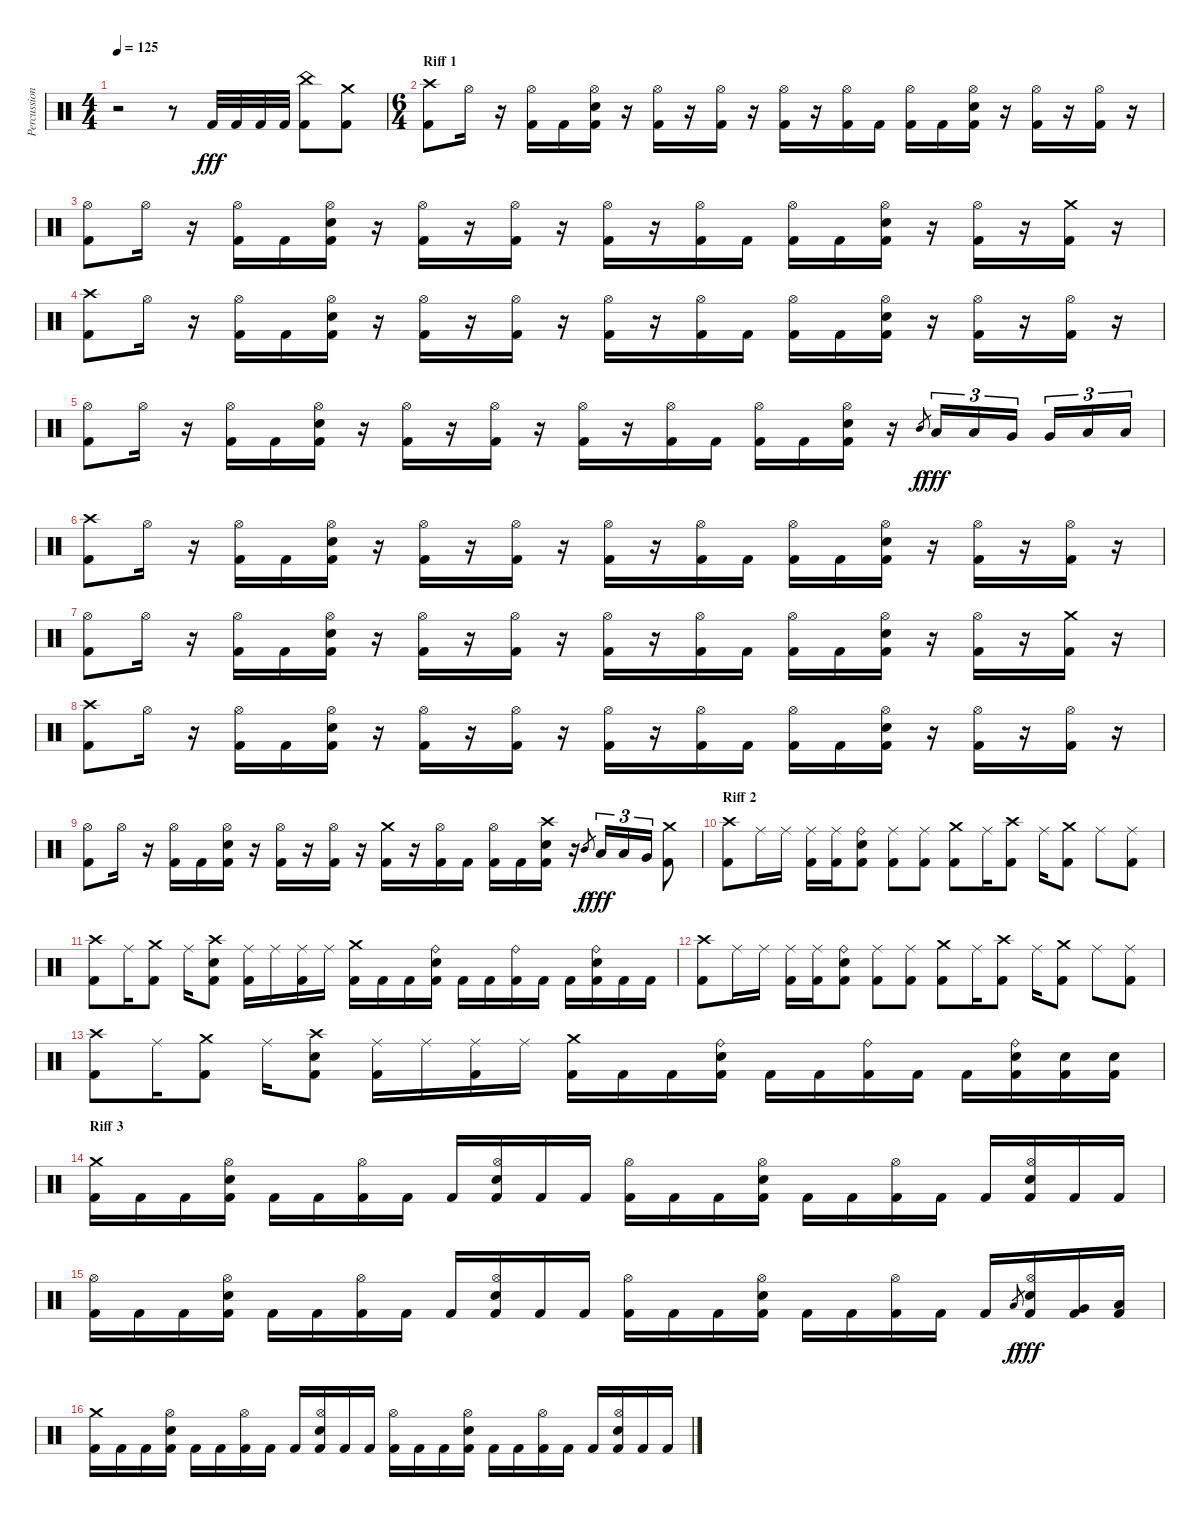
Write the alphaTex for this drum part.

\track ("Percussion" "Percussion") {instrument percussion}
\staff {score}
\articulation defaults
\ts (4 4)
\tempo 125
\clef neutral
\ks c
r.2{dy fff} r.8 "Kick (hit) 2".32 "Kick (hit) 2".32 "Kick (hit) 2".32 "Kick (hit) 2".32 ("China (hit)" "Kick (hit) 2").8 ("Crash medium (hit)" "Kick (hit) 2").8 |
\ts (6 4)
\section ("" "Riff 1")
("Crash high (hit)" "Kick (hit) 2").8 "Hi-Hat (open)".16 r.16 ("Hi-Hat (open)" "Kick (hit) 2").16 "Kick (hit) 2".16 ("Hi-Hat (open)" "Electric Snare (hit)" "Kick (hit) 2").16 r.16 ("Hi-Hat (open)" "Kick (hit) 2").16 r.16 ("Hi-Hat (open)" "Kick (hit) 2").16 r.16 ("Hi-Hat (open)" "Kick (hit) 2").16 r.16 ("Hi-Hat (open)" "Kick (hit) 2").16 "Kick (hit) 2".16 ("Hi-Hat (open)" "Kick (hit) 2").16 "Kick (hit) 2".16 ("Hi-Hat (open)" "Electric Snare (hit)" "Kick (hit) 2").16 r.16 ("Hi-Hat (open)" "Kick (hit) 2").16 r.16 ("Hi-Hat (open)" "Kick (hit) 2").16 r.16 |
("Hi-Hat (open)" "Kick (hit) 2").8 "Hi-Hat (open)".16 r.16 ("Hi-Hat (open)" "Kick (hit) 2").16 "Kick (hit) 2".16 ("Hi-Hat (open)" "Electric Snare (hit)" "Kick (hit) 2").16 r.16 ("Hi-Hat (open)" "Kick (hit) 2").16 r.16 ("Hi-Hat (open)" "Kick (hit) 2").16 r.16 ("Hi-Hat (open)" "Kick (hit) 2").16 r.16 ("Hi-Hat (open)" "Kick (hit) 2").16 "Kick (hit) 2".16 ("Hi-Hat (open)" "Kick (hit) 2").16 "Kick (hit) 2".16 ("Hi-Hat (open)" "Electric Snare (hit)" "Kick (hit) 2").16 r.16 ("Hi-Hat (open)" "Kick (hit) 2").16 r.16 ("Crash medium (hit)" "Kick (hit) 2").16 r.16 |
("Crash high (hit)" "Kick (hit) 2").8 "Hi-Hat (open)".16 r.16 ("Hi-Hat (open)" "Kick (hit) 2").16 "Kick (hit) 2".16 ("Hi-Hat (open)" "Electric Snare (hit)" "Kick (hit) 2").16 r.16 ("Hi-Hat (open)" "Kick (hit) 2").16 r.16 ("Hi-Hat (open)" "Kick (hit) 2").16 r.16 ("Hi-Hat (open)" "Kick (hit) 2").16 r.16 ("Hi-Hat (open)" "Kick (hit) 2").16 "Kick (hit) 2".16 ("Hi-Hat (open)" "Kick (hit) 2").16 "Kick (hit) 2".16 ("Hi-Hat (open)" "Electric Snare (hit)" "Kick (hit) 2").16 r.16 ("Hi-Hat (open)" "Kick (hit) 2").16 r.16 ("Hi-Hat (open)" "Kick (hit) 2").16 r.16 |
("Hi-Hat (open)" "Kick (hit) 2").8 "Hi-Hat (open)".16 r.16 ("Hi-Hat (open)" "Kick (hit) 2").16 "Kick (hit) 2".16 ("Hi-Hat (open)" "Electric Snare (hit)" "Kick (hit) 2").16 r.16 ("Hi-Hat (open)" "Kick (hit) 2").16 r.16 ("Hi-Hat (open)" "Kick (hit) 2").16 r.16 ("Hi-Hat (open)" "Kick (hit) 2").16 r.16 ("Hi-Hat (open)" "Kick (hit) 2").16 "Kick (hit) 2".16 ("Hi-Hat (open)" "Kick (hit) 2").16 "Kick (hit) 2".16 ("Hi-Hat (open)" "Electric Snare (hit)" "Kick (hit) 2").16 r.16 "Mid Tom (hit)".8{gr dy f} "Low Tom (hit)".16{tu (3 2) dy fff} "Low Tom (hit)".16{tu (3 2)} "Very Low Tom (hit)".16{tu (3 2)} "Very Low Tom (hit)".16{tu (3 2)} "Low Floor Tom (hit)".16{tu (3 2)} "Low Floor Tom (hit)".16{tu (3 2)} |
("Crash high (hit)" "Kick (hit) 2").8 "Hi-Hat (open)".16 r.16 ("Hi-Hat (open)" "Kick (hit) 2").16 "Kick (hit) 2".16 ("Hi-Hat (open)" "Electric Snare (hit)" "Kick (hit) 2").16 r.16 ("Hi-Hat (open)" "Kick (hit) 2").16 r.16 ("Hi-Hat (open)" "Kick (hit) 2").16 r.16 ("Hi-Hat (open)" "Kick (hit) 2").16 r.16 ("Hi-Hat (open)" "Kick (hit) 2").16 "Kick (hit) 2".16 ("Hi-Hat (open)" "Kick (hit) 2").16 "Kick (hit) 2".16 ("Hi-Hat (open)" "Electric Snare (hit)" "Kick (hit) 2").16 r.16 ("Hi-Hat (open)" "Kick (hit) 2").16 r.16 ("Hi-Hat (open)" "Kick (hit) 2").16 r.16 |
("Hi-Hat (open)" "Kick (hit) 2").8 "Hi-Hat (open)".16 r.16 ("Hi-Hat (open)" "Kick (hit) 2").16 "Kick (hit) 2".16 ("Hi-Hat (open)" "Electric Snare (hit)" "Kick (hit) 2").16 r.16 ("Hi-Hat (open)" "Kick (hit) 2").16 r.16 ("Hi-Hat (open)" "Kick (hit) 2").16 r.16 ("Hi-Hat (open)" "Kick (hit) 2").16 r.16 ("Hi-Hat (open)" "Kick (hit) 2").16 "Kick (hit) 2".16 ("Hi-Hat (open)" "Kick (hit) 2").16 "Kick (hit) 2".16 ("Hi-Hat (open)" "Electric Snare (hit)" "Kick (hit) 2").16 r.16 ("Hi-Hat (open)" "Kick (hit) 2").16 r.16 ("Crash medium (hit)" "Kick (hit) 2").16 r.16 |
("Crash high (hit)" "Kick (hit) 2").8 "Hi-Hat (open)".16 r.16 ("Hi-Hat (open)" "Kick (hit) 2").16 "Kick (hit) 2".16 ("Hi-Hat (open)" "Electric Snare (hit)" "Kick (hit) 2").16 r.16 ("Hi-Hat (open)" "Kick (hit) 2").16 r.16 ("Hi-Hat (open)" "Kick (hit) 2").16 r.16 ("Hi-Hat (open)" "Kick (hit) 2").16 r.16 ("Hi-Hat (open)" "Kick (hit) 2").16 "Kick (hit) 2".16 ("Hi-Hat (open)" "Kick (hit) 2").16 "Kick (hit) 2".16 ("Hi-Hat (open)" "Electric Snare (hit)" "Kick (hit) 2").16 r.16 ("Hi-Hat (open)" "Kick (hit) 2").16 r.16 ("Hi-Hat (open)" "Kick (hit) 2").16 r.16 |
("Hi-Hat (open)" "Kick (hit) 2").8 "Hi-Hat (open)".16 r.16 ("Hi-Hat (open)" "Kick (hit) 2").16 "Kick (hit) 2".16 ("Hi-Hat (open)" "Electric Snare (hit)" "Kick (hit) 2").16 r.16 ("Hi-Hat (open)" "Kick (hit) 2").16 r.16 ("Hi-Hat (open)" "Kick (hit) 2").16 r.16 ("Crash medium (hit)" "Kick (hit) 2").16 r.16 ("Hi-Hat (open)" "Kick (hit) 2").16 "Kick (hit) 2".16 ("Hi-Hat (open)" "Kick (hit) 2").16 "Kick (hit) 2".16 ("Crash high (hit)" "Electric Snare (hit)" "Kick (hit) 2").16 r.16 "Mid Tom (hit)".8{gr dy f} "Low Tom (hit)".16{tu (3 2) dy fff} "Low Tom (hit)".16{tu (3 2)} "Very Low Tom (hit)".16{tu (3 2)} ("Crash medium (hit)" "Kick (hit) 2").8 |
\section ("" "Riff 2")
("Crash high (hit)" "Kick (hit) 2").8 "Ride (middle)".16 "Ride (middle)".16 ("Ride (middle)" "Kick (hit) 2").16 ("Ride (middle)" "Kick (hit) 2").16 ("Ride (bell)" "Electric Snare (hit)" "Kick (hit) 2").8 ("Ride (middle)" "Kick (hit) 2").8 ("Ride (middle)" "Kick (hit) 2").8 ("Crash medium (hit)" "Kick (hit) 2").8 "Ride (middle)".16 ("Crash high (hit)" "Kick (hit) 2").8 "Ride (middle)".16 ("Crash medium (hit)" "Kick (hit) 2").8 "Ride (middle)".8 ("Ride (middle)" "Kick (hit) 2").8 |
("Crash high (hit)" "Kick (hit) 2").8 "Ride (middle)".16 ("Crash medium (hit)" "Kick (hit) 2").8 "Ride (middle)".16 ("Crash high (hit)" "Electric Snare (hit)" "Kick (hit) 2").8 ("Ride (middle)" "Kick (hit) 2").16 "Ride (middle)".16 ("Ride (middle)" "Kick (hit) 2").16 "Ride (middle)".16 ("Crash medium (hit)" "Kick (hit) 2").16 "Kick (hit) 2".16 "Kick (hit) 2".16 ("Ride (bell)" "Electric Snare (hit)" "Kick (hit) 2").16 "Kick (hit) 2".16 "Kick (hit) 2".16 ("Ride (bell)" "Kick (hit) 2").16 "Kick (hit) 2".16 "Kick (hit) 2".16 ("Ride (bell)" "Electric Snare (hit)" "Kick (hit) 2").16 "Kick (hit) 2".16 "Kick (hit) 2".16 |
("Crash high (hit)" "Kick (hit) 2").8 "Ride (middle)".16 "Ride (middle)".16 ("Ride (middle)" "Kick (hit) 2").16 ("Ride (middle)" "Kick (hit) 2").16 ("Ride (bell)" "Electric Snare (hit)" "Kick (hit) 2").8 ("Ride (middle)" "Kick (hit) 2").8 ("Ride (middle)" "Kick (hit) 2").8 ("Crash medium (hit)" "Kick (hit) 2").8 "Ride (middle)".16 ("Crash high (hit)" "Kick (hit) 2").8 "Ride (middle)".16 ("Crash medium (hit)" "Kick (hit) 2").8 "Ride (middle)".8 ("Ride (middle)" "Kick (hit) 2").8 |
("Crash high (hit)" "Kick (hit) 2").8 "Ride (middle)".16 ("Crash medium (hit)" "Kick (hit) 2").8 "Ride (middle)".16 ("Crash high (hit)" "Electric Snare (hit)" "Kick (hit) 2").8 ("Ride (middle)" "Kick (hit) 2").16 "Ride (middle)".16 ("Ride (middle)" "Kick (hit) 2").16 "Ride (middle)".16 ("Crash medium (hit)" "Kick (hit) 2").16 "Kick (hit) 2".16 "Kick (hit) 2".16 ("Ride (bell)" "Electric Snare (hit)" "Kick (hit) 2").16 "Kick (hit) 2".16 "Kick (hit) 2".16 ("Ride (bell)" "Kick (hit) 2").16 "Kick (hit) 2".16 "Kick (hit) 2".16 ("Ride (bell)" "Electric Snare (hit)" "Kick (hit) 2").16 ("Electric Snare (hit)" "Kick (hit) 2").16 ("Electric Snare (hit)" "Kick (hit) 2").16 |
\section ("" "Riff 3")
("Crash medium (hit)" "Kick (hit) 2").16 "Kick (hit) 2".16 "Kick (hit) 2".16 ("Hi-Hat (open)" "Electric Snare (hit)" "Kick (hit) 2").16 "Kick (hit) 2".16 "Kick (hit) 2".16 ("Hi-Hat (open)" "Kick (hit) 2").16 "Kick (hit) 2".16 "Kick (hit) 2".16 ("Hi-Hat (open)" "Electric Snare (hit)" "Kick (hit) 2").16 "Kick (hit) 2".16 "Kick (hit) 2".16 ("Hi-Hat (open)" "Kick (hit) 2").16 "Kick (hit) 2".16 "Kick (hit) 2".16 ("Hi-Hat (open)" "Electric Snare (hit)" "Kick (hit) 2").16 "Kick (hit) 2".16 "Kick (hit) 2".16 ("Hi-Hat (open)" "Kick (hit) 2").16 "Kick (hit) 2".16 "Kick (hit) 2".16 ("Hi-Hat (open)" "Electric Snare (hit)" "Kick (hit) 2").16 "Kick (hit) 2".16 "Kick (hit) 2".16 |
("Hi-Hat (open)" "Kick (hit) 2").16 "Kick (hit) 2".16 "Kick (hit) 2".16 ("Hi-Hat (open)" "Electric Snare (hit)" "Kick (hit) 2").16 "Kick (hit) 2".16 "Kick (hit) 2".16 ("Hi-Hat (open)" "Kick (hit) 2").16 "Kick (hit) 2".16 "Kick (hit) 2".16 ("Hi-Hat (open)" "Electric Snare (hit)" "Kick (hit) 2").16 "Kick (hit) 2".16 "Kick (hit) 2".16 ("Hi-Hat (open)" "Kick (hit) 2").16 "Kick (hit) 2".16 "Kick (hit) 2".16 ("Hi-Hat (open)" "Electric Snare (hit)" "Kick (hit) 2").16 "Kick (hit) 2".16 "Kick (hit) 2".16 ("Hi-Hat (open)" "Kick (hit) 2").16 "Kick (hit) 2".16 "Kick (hit) 2".16 "Low Tom (hit)".8{gr dy f} ("Hi-Hat (open)" "Electric Snare (hit)" "Kick (hit) 2").16{dy fff} ("Very Low Tom (hit)" "Kick (hit) 2").16 ("Low Floor Tom (hit)" "Kick (hit) 2").16 |
("Crash medium (hit)" "Kick (hit) 2").16 "Kick (hit) 2".16 "Kick (hit) 2".16 ("Hi-Hat (open)" "Electric Snare (hit)" "Kick (hit) 2").16 "Kick (hit) 2".16 "Kick (hit) 2".16 ("Hi-Hat (open)" "Kick (hit) 2").16 "Kick (hit) 2".16 "Kick (hit) 2".16 ("Hi-Hat (open)" "Electric Snare (hit)" "Kick (hit) 2").16 "Kick (hit) 2".16 "Kick (hit) 2".16 ("Hi-Hat (open)" "Kick (hit) 2").16 "Kick (hit) 2".16 "Kick (hit) 2".16 ("Hi-Hat (open)" "Electric Snare (hit)" "Kick (hit) 2").16 "Kick (hit) 2".16 "Kick (hit) 2".16 ("Hi-Hat (open)" "Kick (hit) 2").16 "Kick (hit) 2".16 "Kick (hit) 2".16 ("Hi-Hat (open)" "Electric Snare (hit)" "Kick (hit) 2").16 "Kick (hit) 2".16 "Kick (hit) 2".16
